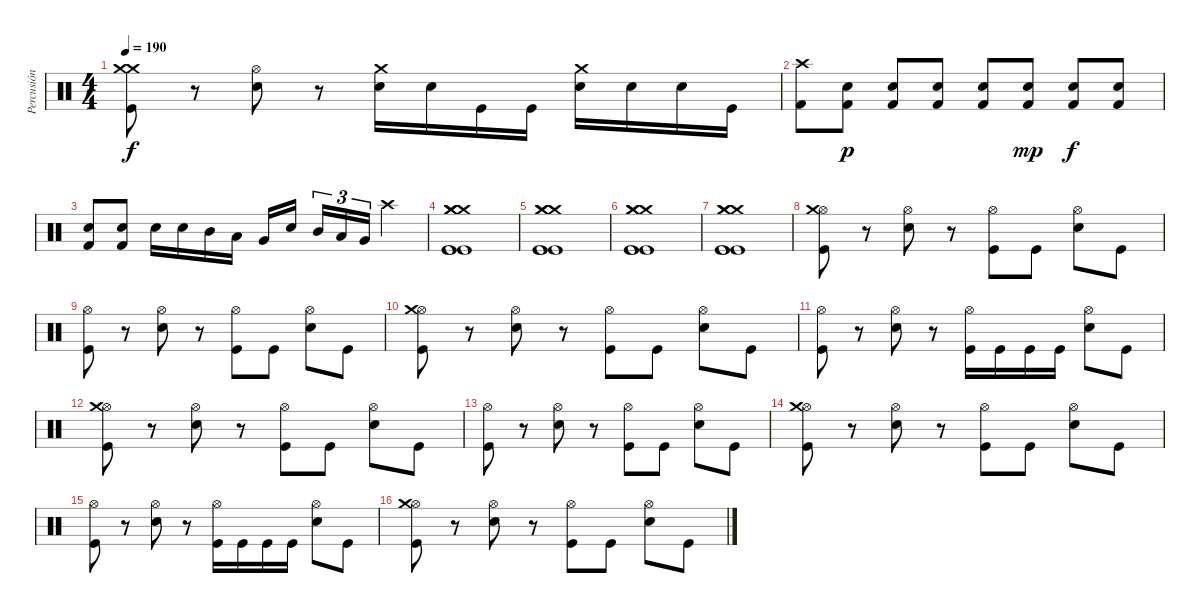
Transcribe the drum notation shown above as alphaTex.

\track ("Percusión" "Percusión") {instrument percussion}
\staff {score}
\articulation defaults
\ts (4 4)
\tempo 190
\clef neutral
\ks c
("Crash medium (hit)" "Crash medium (hit)" "Kick (hit)").8{dy f} r.8 ("Hi-Hat (open)" "Snare (hit) 2").8 r.8 ("Crash medium (hit)" "Snare (hit) 2").16 "Snare (hit) 2".16 "Kick (hit)".16 "Kick (hit)".16 ("Crash medium (hit)" "Snare (hit) 2").16 "Snare (hit) 2".16 "Snare (hit) 2".16 "Kick (hit)".16 |
("Crash high (hit)" "Kick (hit) 2").8 ("Snare (hit) 2" "Kick (hit) 2").8{dy p} ("Snare (hit) 2" "Kick (hit) 2").8 ("Snare (hit) 2" "Kick (hit) 2").8 ("Snare (hit) 2" "Kick (hit) 2").8 ("Snare (hit) 2" "Kick (hit) 2").8{dy mp} ("Snare (hit) 2" "Kick (hit) 2").8{dy f} ("Snare (hit) 2" "Kick (hit) 2").8 |
("Snare (hit) 2" "Kick (hit) 2").8 ("Snare (hit) 2" "Kick (hit) 2").8 "Snare (hit) 2".16 "Snare (hit) 2".16 "Mid Tom (hit)".16 "Low Tom (hit)".16 "Very Low Tom (hit)".16 "Snare (hit) 2".16 "Mid Tom (hit)".16{tu (3 2)} "Low Tom (hit)".16{tu (3 2)} "Very Low Tom (hit)".16{tu (3 2)} "Crash high (hit)".4 |
("Crash medium (hit)" "Crash medium (hit)" "Crash medium (hit)" "Kick (hit)" "Kick (hit)" "Kick (hit)").1 |
("Crash medium (hit)" "Crash medium (hit)" "Crash medium (hit)" "Kick (hit)" "Kick (hit)" "Kick (hit)").1 |
("Crash medium (hit)" "Crash medium (hit)" "Crash medium (hit)" "Kick (hit)" "Kick (hit)" "Kick (hit)").1 |
("Crash medium (hit)" "Crash medium (hit)" "Crash medium (hit)" "Kick (hit)" "Kick (hit)" "Kick (hit)").1 |
("Hi-Hat (open)" "Crash medium (hit)" "Kick (hit)").8 r.8 ("Hi-Hat (open)" "Snare (hit) 2").8 r.8 ("Hi-Hat (open)" "Kick (hit)").8 "Kick (hit)".8 ("Hi-Hat (open)" "Snare (hit) 2").8 "Kick (hit)".8 |
("Hi-Hat (open)" "Kick (hit)").8 r.8 ("Hi-Hat (open)" "Snare (hit) 2").8 r.8 ("Hi-Hat (open)" "Kick (hit)").8 "Kick (hit)".8 ("Hi-Hat (open)" "Snare (hit) 2").8 "Kick (hit)".8 |
("Hi-Hat (open)" "Crash medium (hit)" "Kick (hit)").8 r.8 ("Hi-Hat (open)" "Snare (hit) 2").8 r.8 ("Hi-Hat (open)" "Kick (hit)").8 "Kick (hit)".8 ("Hi-Hat (open)" "Snare (hit) 2").8 "Kick (hit)".8 |
("Hi-Hat (open)" "Kick (hit)").8 r.8 ("Hi-Hat (open)" "Snare (hit) 2").8 r.8 ("Hi-Hat (open)" "Kick (hit)").16 "Kick (hit)".16 "Kick (hit)".16 "Kick (hit)".16 ("Hi-Hat (open)" "Snare (hit) 2").8 "Kick (hit)".8 |
("Hi-Hat (open)" "Crash medium (hit)" "Kick (hit)").8 r.8 ("Hi-Hat (open)" "Snare (hit) 2").8 r.8 ("Hi-Hat (open)" "Kick (hit)").8 "Kick (hit)".8 ("Hi-Hat (open)" "Snare (hit) 2").8 "Kick (hit)".8 |
("Hi-Hat (open)" "Kick (hit)").8 r.8 ("Hi-Hat (open)" "Snare (hit) 2").8 r.8 ("Hi-Hat (open)" "Kick (hit)").8 "Kick (hit)".8 ("Hi-Hat (open)" "Snare (hit) 2").8 "Kick (hit)".8 |
("Hi-Hat (open)" "Crash medium (hit)" "Kick (hit)").8 r.8 ("Hi-Hat (open)" "Snare (hit) 2").8 r.8 ("Hi-Hat (open)" "Kick (hit)").8 "Kick (hit)".8 ("Hi-Hat (open)" "Snare (hit) 2").8 "Kick (hit)".8 |
("Hi-Hat (open)" "Kick (hit)").8 r.8 ("Hi-Hat (open)" "Snare (hit) 2").8 r.8 ("Hi-Hat (open)" "Kick (hit)").16 "Kick (hit)".16 "Kick (hit)".16 "Kick (hit)".16 ("Hi-Hat (open)" "Snare (hit) 2").8 "Kick (hit)".8 |
("Hi-Hat (open)" "Crash medium (hit)" "Kick (hit)").8 r.8 ("Hi-Hat (open)" "Snare (hit) 2").8 r.8 ("Hi-Hat (open)" "Kick (hit)").8 "Kick (hit)".8 ("Hi-Hat (open)" "Snare (hit) 2").8 "Kick (hit)".8
